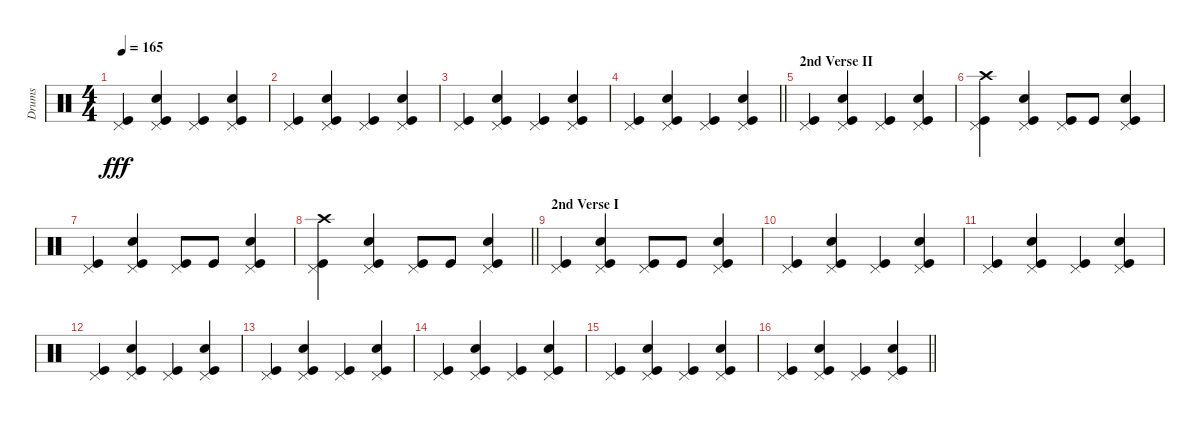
\track ("Drums" "Drums") {instrument percussion}
\staff {score}
\articulation defaults
\ts (4 4)
\tempo 165
\clef neutral
\ks c
("Pedal Hi-Hat (hit)" "Kick (hit)").4{dy fff} ("Snare (hit) 2" "Pedal Hi-Hat (hit)" "Kick (hit)").4 ("Pedal Hi-Hat (hit)" "Kick (hit)").4 ("Snare (hit) 2" "Pedal Hi-Hat (hit)" "Kick (hit)").4 |
("Pedal Hi-Hat (hit)" "Kick (hit)").4 ("Snare (hit) 2" "Pedal Hi-Hat (hit)" "Kick (hit)").4 ("Pedal Hi-Hat (hit)" "Kick (hit)").4 ("Snare (hit) 2" "Pedal Hi-Hat (hit)" "Kick (hit)").4 |
("Pedal Hi-Hat (hit)" "Kick (hit)").4 ("Snare (hit) 2" "Pedal Hi-Hat (hit)" "Kick (hit)").4 ("Pedal Hi-Hat (hit)" "Kick (hit)").4 ("Snare (hit) 2" "Pedal Hi-Hat (hit)" "Kick (hit)").4 |
\barLineRight lightlight
("Pedal Hi-Hat (hit)" "Kick (hit)").4 ("Snare (hit) 2" "Pedal Hi-Hat (hit)" "Kick (hit)").4 ("Pedal Hi-Hat (hit)" "Kick (hit)").4 ("Snare (hit) 2" "Pedal Hi-Hat (hit)" "Kick (hit)").4 |
\section ("" "2nd Verse II")
("Pedal Hi-Hat (hit)" "Kick (hit)").4 ("Snare (hit) 2" "Pedal Hi-Hat (hit)" "Kick (hit)").4 ("Pedal Hi-Hat (hit)" "Kick (hit)").4 ("Snare (hit) 2" "Pedal Hi-Hat (hit)" "Kick (hit)").4 |
("Crash high (hit)" "Pedal Hi-Hat (hit)" "Kick (hit)").4 ("Snare (hit) 2" "Pedal Hi-Hat (hit)" "Kick (hit)").4 ("Pedal Hi-Hat (hit)" "Kick (hit)").8 "Kick (hit)".8 ("Snare (hit) 2" "Pedal Hi-Hat (hit)" "Kick (hit)").4 |
("Pedal Hi-Hat (hit)" "Kick (hit)").4 ("Snare (hit) 2" "Pedal Hi-Hat (hit)" "Kick (hit)").4 ("Pedal Hi-Hat (hit)" "Kick (hit)").8 "Kick (hit)".8 ("Snare (hit) 2" "Pedal Hi-Hat (hit)" "Kick (hit)").4 |
\barLineRight lightlight
("Crash high (hit)" "Pedal Hi-Hat (hit)" "Kick (hit)").4 ("Snare (hit) 2" "Pedal Hi-Hat (hit)" "Kick (hit)").4 ("Pedal Hi-Hat (hit)" "Kick (hit)").8 "Kick (hit)".8 ("Snare (hit) 2" "Pedal Hi-Hat (hit)" "Kick (hit)").4 |
\section ("" "2nd Verse I")
("Pedal Hi-Hat (hit)" "Kick (hit)").4 ("Snare (hit) 2" "Pedal Hi-Hat (hit)" "Kick (hit)").4 ("Pedal Hi-Hat (hit)" "Kick (hit)").8 "Kick (hit)".8 ("Snare (hit) 2" "Pedal Hi-Hat (hit)" "Kick (hit)").4 |
("Pedal Hi-Hat (hit)" "Kick (hit)").4 ("Snare (hit) 2" "Pedal Hi-Hat (hit)" "Kick (hit)").4 ("Pedal Hi-Hat (hit)" "Kick (hit)").4 ("Snare (hit) 2" "Pedal Hi-Hat (hit)" "Kick (hit)").4 |
("Pedal Hi-Hat (hit)" "Kick (hit)").4 ("Snare (hit) 2" "Pedal Hi-Hat (hit)" "Kick (hit)").4 ("Pedal Hi-Hat (hit)" "Kick (hit)").4 ("Snare (hit) 2" "Pedal Hi-Hat (hit)" "Kick (hit)").4 |
("Pedal Hi-Hat (hit)" "Kick (hit)").4 ("Snare (hit) 2" "Pedal Hi-Hat (hit)" "Kick (hit)").4 ("Pedal Hi-Hat (hit)" "Kick (hit)").4 ("Snare (hit) 2" "Pedal Hi-Hat (hit)" "Kick (hit)").4 |
("Pedal Hi-Hat (hit)" "Kick (hit)").4 ("Snare (hit) 2" "Pedal Hi-Hat (hit)" "Kick (hit)").4 ("Pedal Hi-Hat (hit)" "Kick (hit)").4 ("Snare (hit) 2" "Pedal Hi-Hat (hit)" "Kick (hit)").4 |
("Pedal Hi-Hat (hit)" "Kick (hit)").4 ("Snare (hit) 2" "Pedal Hi-Hat (hit)" "Kick (hit)").4 ("Pedal Hi-Hat (hit)" "Kick (hit)").4 ("Snare (hit) 2" "Pedal Hi-Hat (hit)" "Kick (hit)").4 |
("Pedal Hi-Hat (hit)" "Kick (hit)").4 ("Snare (hit) 2" "Pedal Hi-Hat (hit)" "Kick (hit)").4 ("Pedal Hi-Hat (hit)" "Kick (hit)").4 ("Snare (hit) 2" "Pedal Hi-Hat (hit)" "Kick (hit)").4 |
\barLineRight lightlight
("Pedal Hi-Hat (hit)" "Kick (hit)").4 ("Snare (hit) 2" "Pedal Hi-Hat (hit)" "Kick (hit)").4 ("Pedal Hi-Hat (hit)" "Kick (hit)").4 ("Snare (hit) 2" "Pedal Hi-Hat (hit)" "Kick (hit)").4
